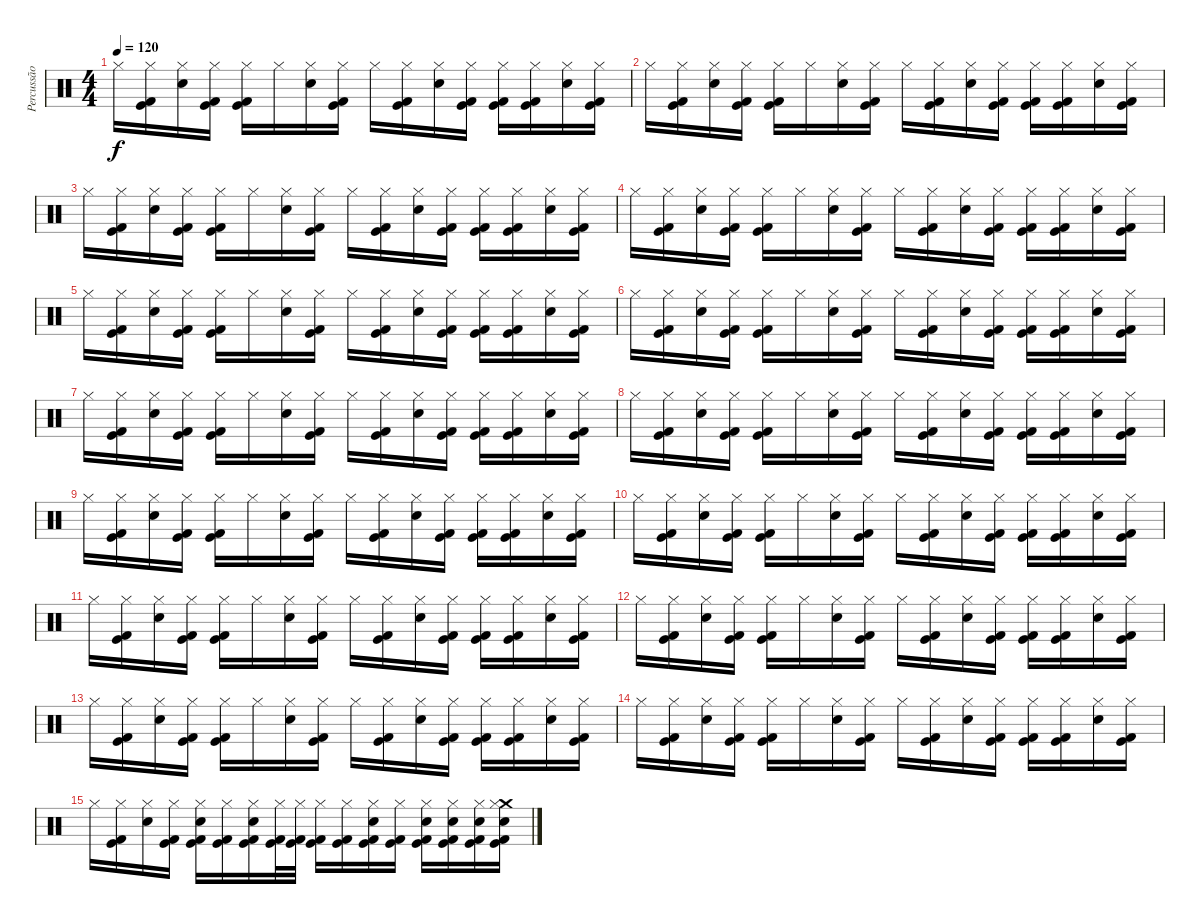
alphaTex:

\track ("Percussão" "Percussão") {instrument percussion}
\staff {score}
\articulation defaults
\ts (4 4)
\tempo 120
\clef neutral
\ks c "Hi-Hat (closed)".16{dy f}
("Hi-Hat (closed)" "Kick (hit)" "Kick (hit) 2").16 ("Hi-Hat (closed)" "Electric Snare (hit)").16 ("Hi-Hat (closed)" "Kick (hit)" "Kick (hit) 2").16 ("Hi-Hat (closed)" "Kick (hit)" "Kick (hit) 2").16 "Hi-Hat (closed)".16 ("Hi-Hat (closed)" "Electric Snare (hit)").16 ("Hi-Hat (closed)" "Kick (hit)" "Kick (hit) 2").16 "Hi-Hat (closed)".16 ("Hi-Hat (closed)" "Kick (hit)" "Kick (hit) 2").16 ("Hi-Hat (closed)" "Electric Snare (hit)").16 ("Hi-Hat (closed)" "Kick (hit)" "Kick (hit) 2").16 ("Hi-Hat (closed)" "Kick (hit)" "Kick (hit) 2").16 ("Hi-Hat (closed)" "Kick (hit)" "Kick (hit) 2").16 ("Hi-Hat (closed)" "Electric Snare (hit)").16 ("Hi-Hat (closed)" "Kick (hit)" "Kick (hit) 2").16 |
"Hi-Hat (closed)".16 ("Hi-Hat (closed)" "Kick (hit)" "Kick (hit) 2").16 ("Hi-Hat (closed)" "Electric Snare (hit)").16 ("Hi-Hat (closed)" "Kick (hit)" "Kick (hit) 2").16 ("Hi-Hat (closed)" "Kick (hit)" "Kick (hit) 2").16 "Hi-Hat (closed)".16 ("Hi-Hat (closed)" "Electric Snare (hit)").16 ("Hi-Hat (closed)" "Kick (hit)" "Kick (hit) 2").16 "Hi-Hat (closed)".16 ("Hi-Hat (closed)" "Kick (hit)" "Kick (hit) 2").16 ("Hi-Hat (closed)" "Electric Snare (hit)").16 ("Hi-Hat (closed)" "Kick (hit)" "Kick (hit) 2").16 ("Hi-Hat (closed)" "Kick (hit)" "Kick (hit) 2").16 ("Hi-Hat (closed)" "Kick (hit)" "Kick (hit) 2").16 ("Hi-Hat (closed)" "Electric Snare (hit)").16 ("Hi-Hat (closed)" "Kick (hit)" "Kick (hit) 2").16 |
"Hi-Hat (closed)".16 ("Hi-Hat (closed)" "Kick (hit)" "Kick (hit) 2").16 ("Hi-Hat (closed)" "Electric Snare (hit)").16 ("Hi-Hat (closed)" "Kick (hit)" "Kick (hit) 2").16 ("Hi-Hat (closed)" "Kick (hit)" "Kick (hit) 2").16 "Hi-Hat (closed)".16 ("Hi-Hat (closed)" "Electric Snare (hit)").16 ("Hi-Hat (closed)" "Kick (hit)" "Kick (hit) 2").16 "Hi-Hat (closed)".16 ("Hi-Hat (closed)" "Kick (hit)" "Kick (hit) 2").16 ("Hi-Hat (closed)" "Electric Snare (hit)").16 ("Hi-Hat (closed)" "Kick (hit)" "Kick (hit) 2").16 ("Hi-Hat (closed)" "Kick (hit)" "Kick (hit) 2").16 ("Hi-Hat (closed)" "Kick (hit)" "Kick (hit) 2").16 ("Hi-Hat (closed)" "Electric Snare (hit)").16 ("Hi-Hat (closed)" "Kick (hit)" "Kick (hit) 2").16 |
"Hi-Hat (closed)".16 ("Hi-Hat (closed)" "Kick (hit)" "Kick (hit) 2").16 ("Hi-Hat (closed)" "Electric Snare (hit)").16 ("Hi-Hat (closed)" "Kick (hit)" "Kick (hit) 2").16 ("Hi-Hat (closed)" "Kick (hit)" "Kick (hit) 2").16 "Hi-Hat (closed)".16 ("Hi-Hat (closed)" "Electric Snare (hit)").16 ("Hi-Hat (closed)" "Kick (hit)" "Kick (hit) 2").16 "Hi-Hat (closed)".16 ("Hi-Hat (closed)" "Kick (hit)" "Kick (hit) 2").16 ("Hi-Hat (closed)" "Electric Snare (hit)").16 ("Hi-Hat (closed)" "Kick (hit)" "Kick (hit) 2").16 ("Hi-Hat (closed)" "Kick (hit)" "Kick (hit) 2").16 ("Hi-Hat (closed)" "Kick (hit)" "Kick (hit) 2").16 ("Hi-Hat (closed)" "Electric Snare (hit)").16 ("Hi-Hat (closed)" "Kick (hit)" "Kick (hit) 2").16 |
"Hi-Hat (closed)".16 ("Hi-Hat (closed)" "Kick (hit)" "Kick (hit) 2").16 ("Hi-Hat (closed)" "Electric Snare (hit)").16 ("Hi-Hat (closed)" "Kick (hit)" "Kick (hit) 2").16 ("Hi-Hat (closed)" "Kick (hit)" "Kick (hit) 2").16 "Hi-Hat (closed)".16 ("Hi-Hat (closed)" "Electric Snare (hit)").16 ("Hi-Hat (closed)" "Kick (hit)" "Kick (hit) 2").16 "Hi-Hat (closed)".16 ("Hi-Hat (closed)" "Kick (hit)" "Kick (hit) 2").16 ("Hi-Hat (closed)" "Electric Snare (hit)").16 ("Hi-Hat (closed)" "Kick (hit)" "Kick (hit) 2").16 ("Hi-Hat (closed)" "Kick (hit)" "Kick (hit) 2").16 ("Hi-Hat (closed)" "Kick (hit)" "Kick (hit) 2").16 ("Hi-Hat (closed)" "Electric Snare (hit)").16 ("Hi-Hat (closed)" "Kick (hit)" "Kick (hit) 2").16 |
"Hi-Hat (closed)".16 ("Hi-Hat (closed)" "Kick (hit)" "Kick (hit) 2").16 ("Hi-Hat (closed)" "Electric Snare (hit)").16 ("Hi-Hat (closed)" "Kick (hit)" "Kick (hit) 2").16 ("Hi-Hat (closed)" "Kick (hit)" "Kick (hit) 2").16 "Hi-Hat (closed)".16 ("Hi-Hat (closed)" "Electric Snare (hit)").16 ("Hi-Hat (closed)" "Kick (hit)" "Kick (hit) 2").16 "Hi-Hat (closed)".16 ("Hi-Hat (closed)" "Kick (hit)" "Kick (hit) 2").16 ("Hi-Hat (closed)" "Electric Snare (hit)").16 ("Hi-Hat (closed)" "Kick (hit)" "Kick (hit) 2").16 ("Hi-Hat (closed)" "Kick (hit)" "Kick (hit) 2").16 ("Hi-Hat (closed)" "Kick (hit)" "Kick (hit) 2").16 ("Hi-Hat (closed)" "Electric Snare (hit)").16 ("Hi-Hat (closed)" "Kick (hit)" "Kick (hit) 2").16 |
"Hi-Hat (closed)".16 ("Hi-Hat (closed)" "Kick (hit)" "Kick (hit) 2").16 ("Hi-Hat (closed)" "Electric Snare (hit)").16 ("Hi-Hat (closed)" "Kick (hit)" "Kick (hit) 2").16 ("Hi-Hat (closed)" "Kick (hit)" "Kick (hit) 2").16 "Hi-Hat (closed)".16 ("Hi-Hat (closed)" "Electric Snare (hit)").16 ("Hi-Hat (closed)" "Kick (hit)" "Kick (hit) 2").16 "Hi-Hat (closed)".16 ("Hi-Hat (closed)" "Kick (hit)" "Kick (hit) 2").16 ("Hi-Hat (closed)" "Electric Snare (hit)").16 ("Hi-Hat (closed)" "Kick (hit)" "Kick (hit) 2").16 ("Hi-Hat (closed)" "Kick (hit)" "Kick (hit) 2").16 ("Hi-Hat (closed)" "Kick (hit)" "Kick (hit) 2").16 ("Hi-Hat (closed)" "Electric Snare (hit)").16 ("Hi-Hat (closed)" "Kick (hit)" "Kick (hit) 2").16 |
"Hi-Hat (closed)".16 ("Hi-Hat (closed)" "Kick (hit)" "Kick (hit) 2").16 ("Hi-Hat (closed)" "Electric Snare (hit)").16 ("Hi-Hat (closed)" "Kick (hit)" "Kick (hit) 2").16 ("Hi-Hat (closed)" "Kick (hit)" "Kick (hit) 2").16 "Hi-Hat (closed)".16 ("Hi-Hat (closed)" "Electric Snare (hit)").16 ("Hi-Hat (closed)" "Kick (hit)" "Kick (hit) 2").16 "Hi-Hat (closed)".16 ("Hi-Hat (closed)" "Kick (hit)" "Kick (hit) 2").16 ("Hi-Hat (closed)" "Electric Snare (hit)").16 ("Hi-Hat (closed)" "Kick (hit)" "Kick (hit) 2").16 ("Hi-Hat (closed)" "Kick (hit)" "Kick (hit) 2").16 ("Hi-Hat (closed)" "Kick (hit)" "Kick (hit) 2").16 ("Hi-Hat (closed)" "Electric Snare (hit)").16 ("Hi-Hat (closed)" "Kick (hit)" "Kick (hit) 2").16 |
"Hi-Hat (closed)".16 ("Hi-Hat (closed)" "Kick (hit)" "Kick (hit) 2").16 ("Hi-Hat (closed)" "Electric Snare (hit)").16 ("Hi-Hat (closed)" "Kick (hit)" "Kick (hit) 2").16 ("Hi-Hat (closed)" "Kick (hit)" "Kick (hit) 2").16 "Hi-Hat (closed)".16 ("Hi-Hat (closed)" "Electric Snare (hit)").16 ("Hi-Hat (closed)" "Kick (hit)" "Kick (hit) 2").16 "Hi-Hat (closed)".16 ("Hi-Hat (closed)" "Kick (hit)" "Kick (hit) 2").16 ("Hi-Hat (closed)" "Electric Snare (hit)").16 ("Hi-Hat (closed)" "Kick (hit)" "Kick (hit) 2").16 ("Hi-Hat (closed)" "Kick (hit)" "Kick (hit) 2").16 ("Hi-Hat (closed)" "Kick (hit)" "Kick (hit) 2").16 ("Hi-Hat (closed)" "Electric Snare (hit)").16 ("Hi-Hat (closed)" "Kick (hit)" "Kick (hit) 2").16 |
"Hi-Hat (closed)".16 ("Hi-Hat (closed)" "Kick (hit)" "Kick (hit) 2").16 ("Hi-Hat (closed)" "Electric Snare (hit)").16 ("Hi-Hat (closed)" "Kick (hit)" "Kick (hit) 2").16 ("Hi-Hat (closed)" "Kick (hit)" "Kick (hit) 2").16 "Hi-Hat (closed)".16 ("Hi-Hat (closed)" "Electric Snare (hit)").16 ("Hi-Hat (closed)" "Kick (hit)" "Kick (hit) 2").16 "Hi-Hat (closed)".16 ("Hi-Hat (closed)" "Kick (hit)" "Kick (hit) 2").16 ("Hi-Hat (closed)" "Electric Snare (hit)").16 ("Hi-Hat (closed)" "Kick (hit)" "Kick (hit) 2").16 ("Hi-Hat (closed)" "Kick (hit)" "Kick (hit) 2").16 ("Hi-Hat (closed)" "Kick (hit)" "Kick (hit) 2").16 ("Hi-Hat (closed)" "Electric Snare (hit)").16 ("Hi-Hat (closed)" "Kick (hit)" "Kick (hit) 2").16 |
"Hi-Hat (closed)".16 ("Hi-Hat (closed)" "Kick (hit)" "Kick (hit) 2").16 ("Hi-Hat (closed)" "Electric Snare (hit)").16 ("Hi-Hat (closed)" "Kick (hit)" "Kick (hit) 2").16 ("Hi-Hat (closed)" "Kick (hit)" "Kick (hit) 2").16 "Hi-Hat (closed)".16 ("Hi-Hat (closed)" "Electric Snare (hit)").16 ("Hi-Hat (closed)" "Kick (hit)" "Kick (hit) 2").16 "Hi-Hat (closed)".16 ("Hi-Hat (closed)" "Kick (hit)" "Kick (hit) 2").16 ("Hi-Hat (closed)" "Electric Snare (hit)").16 ("Hi-Hat (closed)" "Kick (hit)" "Kick (hit) 2").16 ("Hi-Hat (closed)" "Kick (hit)" "Kick (hit) 2").16 ("Hi-Hat (closed)" "Kick (hit)" "Kick (hit) 2").16 ("Hi-Hat (closed)" "Electric Snare (hit)").16 ("Hi-Hat (closed)" "Kick (hit)" "Kick (hit) 2").16 |
"Hi-Hat (closed)".16 ("Hi-Hat (closed)" "Kick (hit)" "Kick (hit) 2").16 ("Hi-Hat (closed)" "Electric Snare (hit)").16 ("Hi-Hat (closed)" "Kick (hit)" "Kick (hit) 2").16 ("Hi-Hat (closed)" "Kick (hit)" "Kick (hit) 2").16 "Hi-Hat (closed)".16 ("Hi-Hat (closed)" "Electric Snare (hit)").16 ("Hi-Hat (closed)" "Kick (hit)" "Kick (hit) 2").16 "Hi-Hat (closed)".16 ("Hi-Hat (closed)" "Kick (hit)" "Kick (hit) 2").16 ("Hi-Hat (closed)" "Electric Snare (hit)").16 ("Hi-Hat (closed)" "Kick (hit)" "Kick (hit) 2").16 ("Hi-Hat (closed)" "Kick (hit)" "Kick (hit) 2").16 ("Hi-Hat (closed)" "Kick (hit)" "Kick (hit) 2").16 ("Hi-Hat (closed)" "Electric Snare (hit)").16 ("Hi-Hat (closed)" "Kick (hit)" "Kick (hit) 2").16 |
"Hi-Hat (closed)".16 ("Hi-Hat (closed)" "Kick (hit)" "Kick (hit) 2").16 ("Hi-Hat (closed)" "Electric Snare (hit)").16 ("Hi-Hat (closed)" "Kick (hit)" "Kick (hit) 2").16 ("Hi-Hat (closed)" "Kick (hit)" "Kick (hit) 2").16 "Hi-Hat (closed)".16 ("Hi-Hat (closed)" "Electric Snare (hit)").16 ("Hi-Hat (closed)" "Kick (hit)" "Kick (hit) 2").16 "Hi-Hat (closed)".16 ("Hi-Hat (closed)" "Kick (hit)" "Kick (hit) 2").16 ("Hi-Hat (closed)" "Electric Snare (hit)").16 ("Hi-Hat (closed)" "Kick (hit)" "Kick (hit) 2").16 ("Hi-Hat (closed)" "Kick (hit)" "Kick (hit) 2").16 ("Hi-Hat (closed)" "Kick (hit)" "Kick (hit) 2").16 ("Hi-Hat (closed)" "Electric Snare (hit)").16 ("Hi-Hat (closed)" "Kick (hit)" "Kick (hit) 2").16 |
"Hi-Hat (closed)".16 ("Hi-Hat (closed)" "Kick (hit)" "Kick (hit) 2").16 ("Hi-Hat (closed)" "Electric Snare (hit)").16 ("Hi-Hat (closed)" "Kick (hit)" "Kick (hit) 2").16 ("Hi-Hat (closed)" "Kick (hit)" "Kick (hit) 2").16 "Hi-Hat (closed)".16 ("Hi-Hat (closed)" "Electric Snare (hit)").16 ("Hi-Hat (closed)" "Kick (hit)" "Kick (hit) 2").16 "Hi-Hat (closed)".16 ("Hi-Hat (closed)" "Kick (hit)" "Kick (hit) 2").16 ("Hi-Hat (closed)" "Electric Snare (hit)").16 ("Hi-Hat (closed)" "Kick (hit)" "Kick (hit) 2").16 ("Hi-Hat (closed)" "Kick (hit)" "Kick (hit) 2").16 ("Hi-Hat (closed)" "Kick (hit)" "Kick (hit) 2").16 ("Hi-Hat (closed)" "Electric Snare (hit)").16 ("Hi-Hat (closed)" "Kick (hit)" "Kick (hit) 2").16 |
"Hi-Hat (closed)".16 ("Hi-Hat (closed)" "Kick (hit)" "Kick (hit) 2").16 ("Hi-Hat (closed)" "Electric Snare (hit)").16 ("Hi-Hat (closed)" "Kick (hit)" "Kick (hit) 2").16 ("Hi-Hat (closed)" "Electric Snare (hit)" "Kick (hit)" "Kick (hit) 2").16 ("Hi-Hat (closed)" "Kick (hit)" "Kick (hit) 2").16 ("Hi-Hat (closed)" "Electric Snare (hit)" "Kick (hit)" "Kick (hit) 2").16 ("Hi-Hat (closed)" "Kick (hit)" "Kick (hit) 2").32 ("Hi-Hat (closed)" "Kick (hit)" "Kick (hit) 2").32 ("Hi-Hat (closed)" "Kick (hit)" "Kick (hit) 2").16 ("Hi-Hat (closed)" "Kick (hit)" "Kick (hit) 2").16 ("Hi-Hat (closed)" "Electric Snare (hit)" "Kick (hit)" "Kick (hit) 2").16 ("Hi-Hat (closed)" "Kick (hit)" "Kick (hit) 2").16 ("Hi-Hat (closed)" "Electric Snare (hit)" "Kick (hit)" "Kick (hit) 2").16 ("Hi-Hat (closed)" "Electric Snare (hit)" "Kick (hit)" "Kick (hit) 2").16 ("Hi-Hat (closed)" "Electric Snare (hit)" "Kick (hit)" "Kick (hit) 2").16 ("Crash medium (hit)" "Hi-Hat (closed)" "Electric Snare (hit)" "Kick (hit)" "Kick (hit) 2").16
